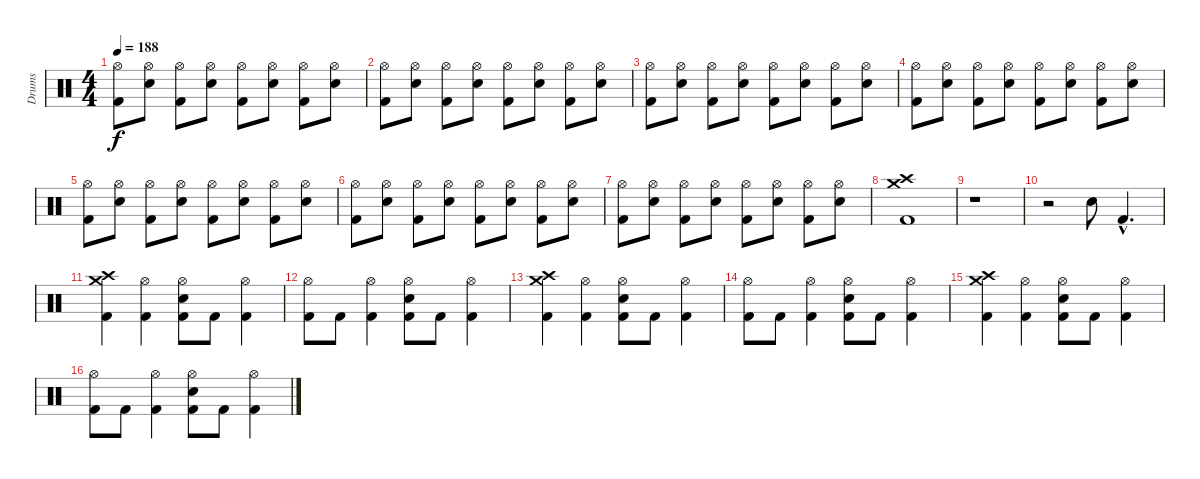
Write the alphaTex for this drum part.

\track ("Drums" "Drums") {instrument percussion}
\staff {score}
\articulation defaults
\ts (4 4)
\tempo 188
\clef neutral
\ks c
("Hi-Hat (open)" "Kick (hit) 2").8{dy f} ("Hi-Hat (open)" "Snare (hit) 2").8 ("Hi-Hat (open)" "Kick (hit) 2").8 ("Hi-Hat (open)" "Snare (hit) 2").8 ("Hi-Hat (open)" "Kick (hit) 2").8 ("Hi-Hat (open)" "Snare (hit) 2").8 ("Hi-Hat (open)" "Kick (hit) 2").8 ("Hi-Hat (open)" "Snare (hit) 2").8 |
("Hi-Hat (open)" "Kick (hit) 2").8 ("Hi-Hat (open)" "Snare (hit) 2").8 ("Hi-Hat (open)" "Kick (hit) 2").8 ("Hi-Hat (open)" "Snare (hit) 2").8 ("Hi-Hat (open)" "Kick (hit) 2").8 ("Hi-Hat (open)" "Snare (hit) 2").8 ("Hi-Hat (open)" "Kick (hit) 2").8 ("Hi-Hat (open)" "Snare (hit) 2").8 |
("Hi-Hat (open)" "Kick (hit) 2").8 ("Hi-Hat (open)" "Snare (hit) 2").8 ("Hi-Hat (open)" "Kick (hit) 2").8 ("Hi-Hat (open)" "Snare (hit) 2").8 ("Hi-Hat (open)" "Kick (hit) 2").8 ("Hi-Hat (open)" "Snare (hit) 2").8 ("Hi-Hat (open)" "Kick (hit) 2").8 ("Hi-Hat (open)" "Snare (hit) 2").8 |
("Hi-Hat (open)" "Kick (hit) 2").8 ("Hi-Hat (open)" "Snare (hit) 2").8 ("Hi-Hat (open)" "Kick (hit) 2").8 ("Hi-Hat (open)" "Snare (hit) 2").8 ("Hi-Hat (open)" "Kick (hit) 2").8 ("Hi-Hat (open)" "Snare (hit) 2").8 ("Hi-Hat (open)" "Kick (hit) 2").8 ("Hi-Hat (open)" "Snare (hit) 2").8 |
("Hi-Hat (open)" "Kick (hit) 2").8 ("Hi-Hat (open)" "Snare (hit) 2").8 ("Hi-Hat (open)" "Kick (hit) 2").8 ("Hi-Hat (open)" "Snare (hit) 2").8 ("Hi-Hat (open)" "Kick (hit) 2").8 ("Hi-Hat (open)" "Snare (hit) 2").8 ("Hi-Hat (open)" "Kick (hit) 2").8 ("Hi-Hat (open)" "Snare (hit) 2").8 |
("Hi-Hat (open)" "Kick (hit) 2").8 ("Hi-Hat (open)" "Snare (hit) 2").8 ("Hi-Hat (open)" "Kick (hit) 2").8 ("Hi-Hat (open)" "Snare (hit) 2").8 ("Hi-Hat (open)" "Kick (hit) 2").8 ("Hi-Hat (open)" "Snare (hit) 2").8 ("Hi-Hat (open)" "Kick (hit) 2").8 ("Hi-Hat (open)" "Snare (hit) 2").8 |
("Hi-Hat (open)" "Kick (hit) 2").8 ("Hi-Hat (open)" "Snare (hit) 2").8 ("Hi-Hat (open)" "Kick (hit) 2").8 ("Hi-Hat (open)" "Snare (hit) 2").8 ("Hi-Hat (open)" "Kick (hit) 2").8 ("Hi-Hat (open)" "Snare (hit) 2").8 ("Hi-Hat (open)" "Kick (hit) 2").8 ("Hi-Hat (open)" "Snare (hit) 2").8 |
("Crash medium (hit)" "Crash high (hit)" "Kick (hit) 2").1 |
r.1 |
r.2 "Snare (hit) 2".8 "Kick (hit) 2"{hac}.4{d} |
("Crash medium (hit)" "Crash high (hit)" "Kick (hit) 2").4 ("Hi-Hat (open)" "Kick (hit) 2").4 ("Hi-Hat (open)" "Snare (hit) 2" "Kick (hit) 2").8 "Kick (hit) 2".8 ("Hi-Hat (open)" "Kick (hit) 2").4 |
("Hi-Hat (open)" "Kick (hit) 2").8 "Kick (hit) 2".8 ("Hi-Hat (open)" "Kick (hit) 2").4 ("Hi-Hat (open)" "Snare (hit) 2" "Kick (hit) 2").8 "Kick (hit) 2".8 ("Hi-Hat (open)" "Kick (hit) 2").4 |
("Crash medium (hit)" "Crash high (hit)" "Kick (hit) 2").4 ("Hi-Hat (open)" "Kick (hit) 2").4 ("Hi-Hat (open)" "Snare (hit) 2" "Kick (hit) 2").8 "Kick (hit) 2".8 ("Hi-Hat (open)" "Kick (hit) 2").4 |
("Hi-Hat (open)" "Kick (hit) 2").8 "Kick (hit) 2".8 ("Hi-Hat (open)" "Kick (hit) 2").4 ("Hi-Hat (open)" "Snare (hit) 2" "Kick (hit) 2").8 "Kick (hit) 2".8 ("Hi-Hat (open)" "Kick (hit) 2").4 |
("Crash medium (hit)" "Crash high (hit)" "Kick (hit) 2").4 ("Hi-Hat (open)" "Kick (hit) 2").4 ("Hi-Hat (open)" "Snare (hit) 2" "Kick (hit) 2").8 "Kick (hit) 2".8 ("Hi-Hat (open)" "Kick (hit) 2").4 |
("Hi-Hat (open)" "Kick (hit) 2").8 "Kick (hit) 2".8 ("Hi-Hat (open)" "Kick (hit) 2").4 ("Hi-Hat (open)" "Snare (hit) 2" "Kick (hit) 2").8 "Kick (hit) 2".8 ("Hi-Hat (open)" "Kick (hit) 2").4
